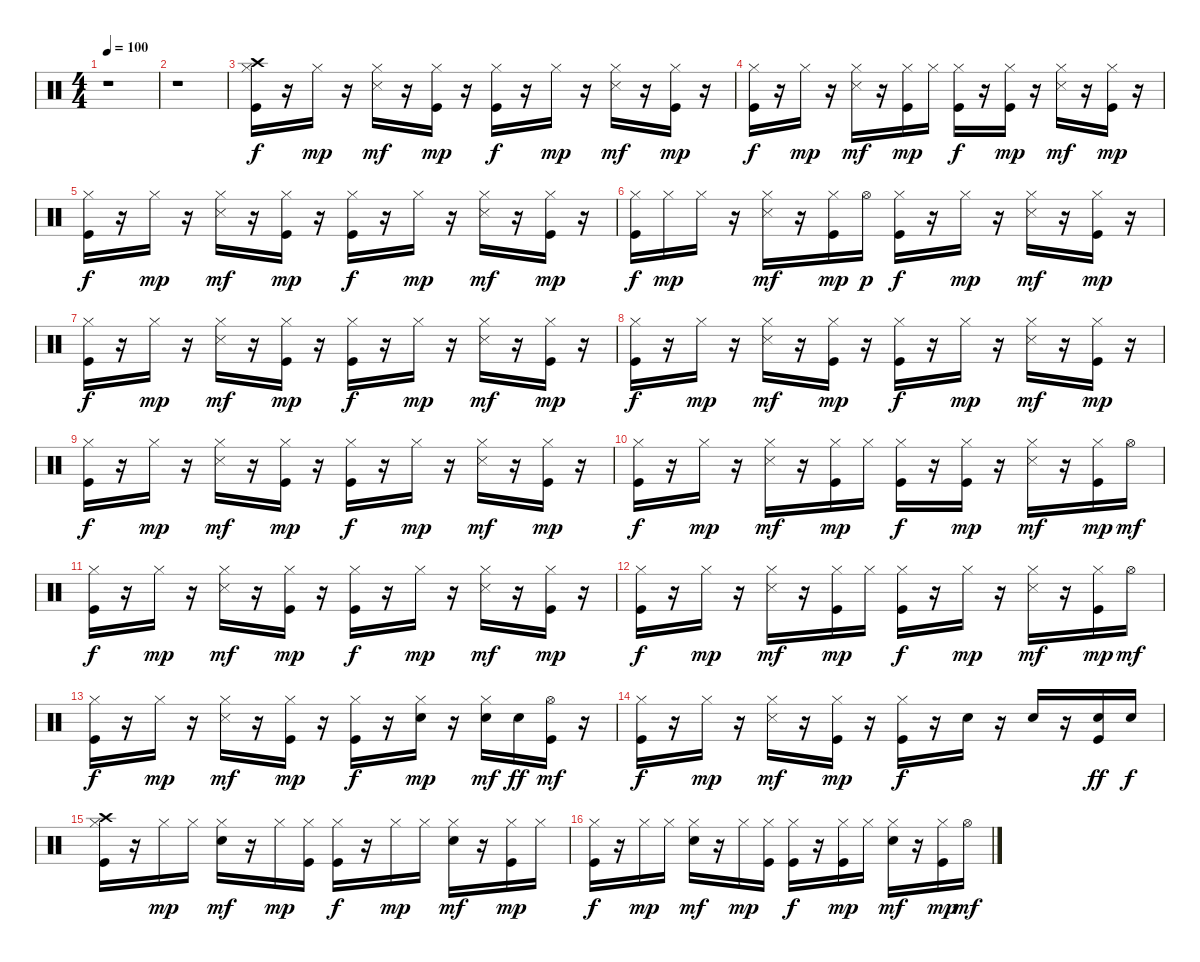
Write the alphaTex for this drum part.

\track "" {instrument percussion}
\staff {score}
\articulation defaults
\ts (4 4)
\tempo 100
\clef neutral
\ks c
r.1{dy f} |
r.1 |
("Kick (hit)" "Hi-Hat (closed)" "Crash high (hit)").16 r.16 "Hi-Hat (closed)".16{dy mp} r.16 ("Hi-Hat (closed)" "Snare (side stick) 3").16{dy mf} r.16 ("Kick (hit)" "Hi-Hat (closed)").16{dy mp} r.16 ("Kick (hit)" "Hi-Hat (closed)").16{dy f} r.16 "Hi-Hat (closed)".16{dy mp} r.16 ("Hi-Hat (closed)" "Snare (side stick) 3").16{dy mf} r.16 ("Kick (hit)" "Hi-Hat (closed)").16{dy mp} r.16 |
("Kick (hit)" "Hi-Hat (closed)").16{dy f} r.16 "Hi-Hat (closed)".16{dy mp} r.16 ("Hi-Hat (closed)" "Snare (side stick) 3").16{dy mf} r.16 ("Kick (hit)" "Hi-Hat (closed)").16{dy mp} "Hi-Hat (closed)".16 ("Kick (hit)" "Hi-Hat (closed)").16{dy f} r.16 ("Kick (hit)" "Hi-Hat (closed)").16{dy mp} r.16 ("Hi-Hat (closed)" "Snare (side stick) 3").16{dy mf} r.16 ("Kick (hit)" "Hi-Hat (closed)").16{dy mp} r.16 |
("Kick (hit)" "Hi-Hat (closed)").16{dy f} r.16 "Hi-Hat (closed)".16{dy mp} r.16 ("Hi-Hat (closed)" "Snare (side stick) 3").16{dy mf} r.16 ("Kick (hit)" "Hi-Hat (closed)").16{dy mp} r.16 ("Kick (hit)" "Hi-Hat (closed)").16{dy f} r.16 "Hi-Hat (closed)".16{dy mp} r.16 ("Hi-Hat (closed)" "Snare (side stick) 3").16{dy mf} r.16 ("Kick (hit)" "Hi-Hat (closed)").16{dy mp} r.16 |
("Kick (hit)" "Hi-Hat (closed)").16{dy f} "Hi-Hat (closed)".16{dy mp} "Hi-Hat (closed)".16 r.16 ("Hi-Hat (closed)" "Snare (side stick) 3").16{dy mf} r.16 ("Kick (hit)" "Hi-Hat (closed)").16{dy mp} "Hi-Hat (open)".16{dy p} ("Kick (hit)" "Hi-Hat (closed)").16{dy f} r.16 "Hi-Hat (closed)".16{dy mp} r.16 ("Hi-Hat (closed)" "Snare (side stick) 3").16{dy mf} r.16 ("Kick (hit)" "Hi-Hat (closed)").16{dy mp} r.16 |
("Kick (hit)" "Hi-Hat (closed)").16{dy f} r.16 "Hi-Hat (closed)".16{dy mp} r.16 ("Hi-Hat (closed)" "Snare (side stick) 3").16{dy mf} r.16 ("Kick (hit)" "Hi-Hat (closed)").16{dy mp} r.16 ("Kick (hit)" "Hi-Hat (closed)").16{dy f} r.16 "Hi-Hat (closed)".16{dy mp} r.16 ("Hi-Hat (closed)" "Snare (side stick) 3").16{dy mf} r.16 ("Kick (hit)" "Hi-Hat (closed)").16{dy mp} r.16 |
("Kick (hit)" "Hi-Hat (closed)").16{dy f} r.16 "Hi-Hat (closed)".16{dy mp} r.16 ("Hi-Hat (closed)" "Snare (side stick) 3").16{dy mf} r.16 ("Kick (hit)" "Hi-Hat (closed)").16{dy mp} r.16 ("Kick (hit)" "Hi-Hat (closed)").16{dy f} r.16 "Hi-Hat (closed)".16{dy mp} r.16 ("Hi-Hat (closed)" "Snare (side stick) 3").16{dy mf} r.16 ("Kick (hit)" "Hi-Hat (closed)").16{dy mp} r.16 |
("Kick (hit)" "Hi-Hat (closed)").16{dy f} r.16 "Hi-Hat (closed)".16{dy mp} r.16 ("Hi-Hat (closed)" "Snare (side stick) 3").16{dy mf} r.16 ("Kick (hit)" "Hi-Hat (closed)").16{dy mp} r.16 ("Kick (hit)" "Hi-Hat (closed)").16{dy f} r.16 "Hi-Hat (closed)".16{dy mp} r.16 ("Hi-Hat (closed)" "Snare (side stick) 3").16{dy mf} r.16 ("Kick (hit)" "Hi-Hat (closed)").16{dy mp} r.16 |
("Kick (hit)" "Hi-Hat (closed)").16{dy f} r.16 "Hi-Hat (closed)".16{dy mp} r.16 ("Hi-Hat (closed)" "Snare (side stick) 3").16{dy mf} r.16 ("Kick (hit)" "Hi-Hat (closed)").16{dy mp} "Hi-Hat (closed)".16 ("Kick (hit)" "Hi-Hat (closed)").16{dy f} r.16 ("Kick (hit)" "Hi-Hat (closed)").16{dy mp} r.16 ("Hi-Hat (closed)" "Snare (side stick) 3").16{dy mf} r.16 ("Kick (hit)" "Hi-Hat (closed)").16{dy mp} "Hi-Hat (open)".16{dy mf} |
("Kick (hit)" "Hi-Hat (closed)").16{dy f} r.16 "Hi-Hat (closed)".16{dy mp} r.16 ("Hi-Hat (closed)" "Snare (side stick) 3").16{dy mf} r.16 ("Kick (hit)" "Hi-Hat (closed)").16{dy mp} r.16 ("Kick (hit)" "Hi-Hat (closed)").16{dy f} r.16 "Hi-Hat (closed)".16{dy mp} r.16 ("Hi-Hat (closed)" "Snare (side stick) 3").16{dy mf} r.16 ("Kick (hit)" "Hi-Hat (closed)").16{dy mp} r.16 |
("Kick (hit)" "Hi-Hat (closed)").16{dy f} r.16 "Hi-Hat (closed)".16{dy mp} r.16 ("Hi-Hat (closed)" "Snare (side stick) 3").16{dy mf} r.16 ("Kick (hit)" "Hi-Hat (closed)").16{dy mp} "Hi-Hat (closed)".16 ("Kick (hit)" "Hi-Hat (closed)").16{dy f} r.16 "Hi-Hat (closed)".16{dy mp} r.16 ("Hi-Hat (closed)" "Snare (side stick) 3").16{dy mf} r.16 ("Kick (hit)" "Hi-Hat (closed)").16{dy mp} "Hi-Hat (open)".16{dy mf} |
("Kick (hit)" "Hi-Hat (closed)").16{dy f} r.16 "Hi-Hat (closed)".16{dy mp} r.16 ("Hi-Hat (closed)" "Snare (side stick) 3").16{dy mf} r.16 ("Kick (hit)" "Hi-Hat (closed)").16{dy mp} r.16 ("Kick (hit)" "Hi-Hat (closed)").16{dy f} r.16 ("Snare (hit) 2" "Hi-Hat (closed)").16{dy mp} r.16 ("Snare (hit) 2" "Hi-Hat (closed)").16{dy mf} "Snare (hit) 2".16{dy ff} ("Kick (hit)" "Hi-Hat (open)").16{dy mf} r.16 |
("Kick (hit)" "Hi-Hat (closed)").16{dy f} r.16 "Hi-Hat (closed)".16{dy mp} r.16 ("Hi-Hat (closed)" "Snare (side stick) 3").16{dy mf} r.16 ("Kick (hit)" "Hi-Hat (closed)").16{dy mp} r.16 ("Kick (hit)" "Hi-Hat (closed)").16{dy f} r.16 "Snare (hit) 2".16 r.16 "Snare (hit) 2".16 r.16 ("Kick (hit)" "Snare (hit) 2").16{dy ff} "Snare (hit) 2".16{dy f} |
("Kick (hit)" "Hi-Hat (closed)" "Crash high (hit)").16 r.16 "Hi-Hat (closed)".16{dy mp} "Hi-Hat (closed)".16 ("Snare (hit) 2" "Hi-Hat (closed)").16{dy mf} r.16 "Hi-Hat (closed)".16{dy mp} ("Kick (hit)" "Hi-Hat (closed)").16 ("Kick (hit)" "Hi-Hat (closed)").16{dy f} r.16 "Hi-Hat (closed)".16{dy mp} "Hi-Hat (closed)".16 ("Snare (hit) 2" "Hi-Hat (closed)").16{dy mf} r.16 ("Kick (hit)" "Hi-Hat (closed)").16{dy mp} "Hi-Hat (closed)".16 |
("Kick (hit)" "Hi-Hat (closed)").16{dy f} r.16 "Hi-Hat (closed)".16{dy mp} "Hi-Hat (closed)".16 ("Snare (hit) 2" "Hi-Hat (closed)").16{dy mf} r.16 "Hi-Hat (closed)".16{dy mp} ("Kick (hit)" "Hi-Hat (closed)").16 ("Kick (hit)" "Hi-Hat (closed)").16{dy f} r.16 ("Kick (hit)" "Hi-Hat (closed)").16{dy mp} "Hi-Hat (closed)".16 ("Snare (hit) 2" "Hi-Hat (closed)").16{dy mf} r.16 ("Kick (hit)" "Hi-Hat (closed)").16{dy mp} "Hi-Hat (open)".16{dy mf}
